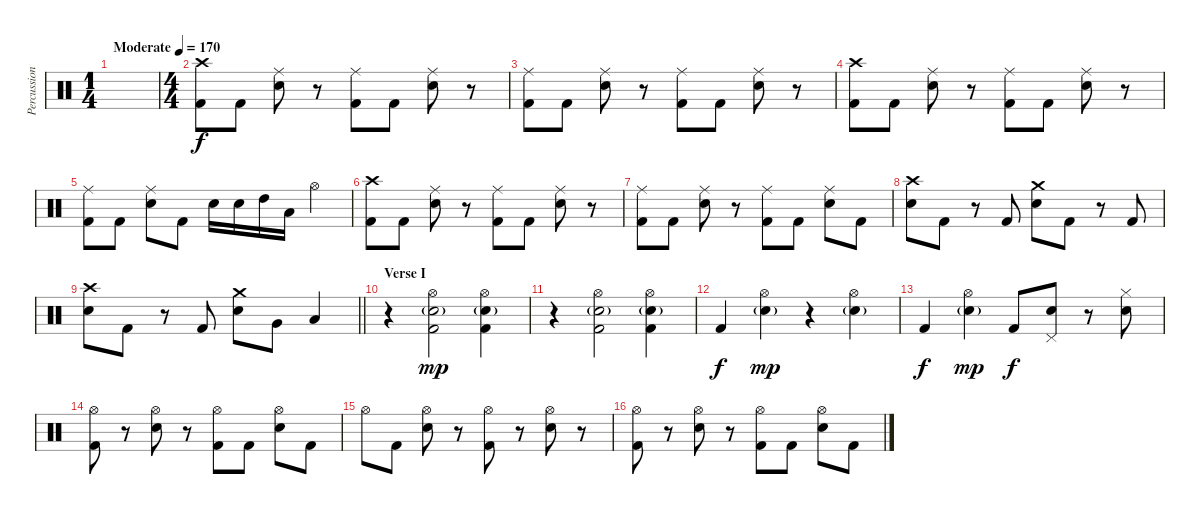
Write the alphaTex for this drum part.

\track ("Percussion" "Percussion") {instrument percussion}
\staff {score}
\articulation defaults
\ts (1 4)
\tempo (170 "Moderate")
\clef neutral
\ks c
|
\ts (4 4)
("Crash high (hit)" "Kick (hit) 2").8 "Kick (hit) 2".8 ("Ride (middle)" "Electric Snare (hit)").8 r.8 ("Ride (middle)" "Kick (hit) 2").8 "Kick (hit) 2".8 ("Ride (middle)" "Electric Snare (hit)").8 r.8 |
("Ride (middle)" "Kick (hit) 2").8 "Kick (hit) 2".8 ("Ride (middle)" "Electric Snare (hit)").8 r.8 ("Ride (middle)" "Kick (hit) 2").8 "Kick (hit) 2".8 ("Ride (middle)" "Electric Snare (hit)").8 r.8 |
("Crash high (hit)" "Kick (hit) 2").8 "Kick (hit) 2".8 ("Ride (middle)" "Electric Snare (hit)").8 r.8 ("Ride (middle)" "Kick (hit) 2").8 "Kick (hit) 2".8 ("Ride (middle)" "Electric Snare (hit)").8 r.8 |
("Ride (middle)" "Kick (hit) 2").8 "Kick (hit) 2".8 ("Ride (middle)" "Electric Snare (hit)").8 "Kick (hit) 2".8 "Electric Snare (hit)".16 "Electric Snare (hit)".16 "High Tom (hit)".16 "Low Tom (hit)".16 "Hi-Hat (open)".4 |
("Crash high (hit)" "Kick (hit) 2").8 "Kick (hit) 2".8 ("Ride (middle)" "Electric Snare (hit)").8 r.8 ("Ride (middle)" "Kick (hit) 2").8 "Kick (hit) 2".8 ("Ride (middle)" "Electric Snare (hit)").8 r.8 |
("Ride (middle)" "Kick (hit) 2").8 "Kick (hit) 2".8 ("Ride (middle)" "Electric Snare (hit)").8 r.8 ("Ride (middle)" "Kick (hit) 2").8 "Kick (hit) 2".8 ("Ride (middle)" "Electric Snare (hit)").8 "Kick (hit) 2".8 |
("Crash high (hit)" "Electric Snare (hit)").8 "Kick (hit) 2".8 r.8 "Kick (hit) 2".8 ("Crash medium (hit)" "Electric Snare (hit)").8 "Kick (hit) 2".8 r.8 "Kick (hit) 2".8 |
\barLineRight lightlight
("Crash high (hit)" "Electric Snare (hit)").8 "Kick (hit) 2".8 r.8 "Kick (hit) 2".8 ("Crash medium (hit)" "Electric Snare (hit)").8 "Very Low Tom (hit)".8 "Low Floor Tom (hit)".4 |
\section ("" "Verse I")
r.4 ("Hi-Hat (open)" "Electric Snare (hit)"{g} "Kick (hit) 2").2{dy mp} ("Hi-Hat (open)" "Electric Snare (hit)"{g} "Kick (hit) 2").4 |
r.4 ("Hi-Hat (open)" "Electric Snare (hit)"{g} "Kick (hit) 2").2 ("Hi-Hat (open)" "Electric Snare (hit)"{g} "Kick (hit) 2").4 |
"Kick (hit) 2".4{dy f} ("Hi-Hat (open)" "Electric Snare (hit)"{g}).4{dy mp} r.4 ("Hi-Hat (open)" "Electric Snare (hit)"{g}).4 |
"Kick (hit) 2".4{dy f} ("Hi-Hat (open)" "Electric Snare (hit)"{g}).4{dy mp} "Kick (hit) 2".8{dy f} ("Pedal Hi-Hat (hit)" "Electric Snare (hit)").8 r.8 ("Hi-Hat (closed)" "Electric Snare (hit)").8 |
("Hi-Hat (open)" "Kick (hit) 2").8 r.8 ("Hi-Hat (open)" "Electric Snare (hit)").8 r.8 ("Hi-Hat (open)" "Kick (hit) 2").8 "Kick (hit) 2".8 ("Hi-Hat (open)" "Electric Snare (hit)").8 "Kick (hit) 2".8 |
"Hi-Hat (open)".8 "Kick (hit) 2".8 ("Hi-Hat (open)" "Electric Snare (hit)").8 r.8 ("Hi-Hat (open)" "Kick (hit) 2").8 r.8 ("Hi-Hat (open)" "Electric Snare (hit)").8 r.8 |
("Hi-Hat (open)" "Kick (hit) 2").8 r.8 ("Hi-Hat (open)" "Electric Snare (hit)").8 r.8 ("Hi-Hat (open)" "Kick (hit) 2").8 "Kick (hit) 2".8 ("Hi-Hat (open)" "Electric Snare (hit)").8 "Kick (hit) 2".8
